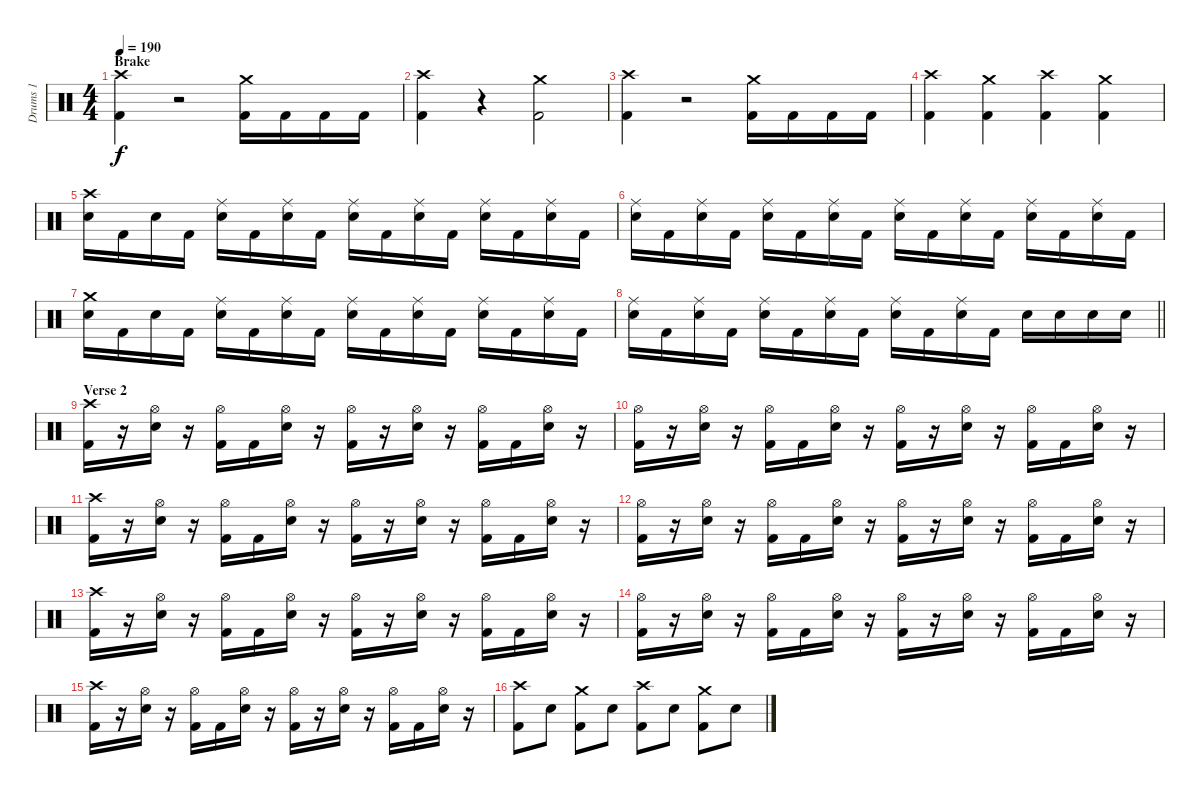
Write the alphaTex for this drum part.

\track ("Drums 1" "Drums 1") {instrument percussion}
\staff {score}
\articulation defaults
\ts (4 4)
\section ("" "Brake")
\tempo 190
\clef neutral
\ks c
("Crash high (hit)" "Kick (hit) 2").4{dy f} r.2 ("Crash medium (hit)" "Kick (hit) 2").16 "Kick (hit) 2".16 "Kick (hit) 2".16 "Kick (hit) 2".16 |
("Crash high (hit)" "Kick (hit) 2").4 r.4 ("Crash medium (hit)" "Kick (hit) 2").2 |
("Crash high (hit)" "Kick (hit) 2").4 r.2 ("Crash medium (hit)" "Kick (hit) 2").16 "Kick (hit) 2".16 "Kick (hit) 2".16 "Kick (hit) 2".16 |
("Crash high (hit)" "Kick (hit) 2").4 ("Crash medium (hit)" "Kick (hit) 2").4 ("Crash high (hit)" "Kick (hit) 2").4 ("Crash medium (hit)" "Kick (hit) 2").4 |
("Crash high (hit)" "Snare (hit) 2").16 "Kick (hit) 2".16 "Snare (hit) 2".16 "Kick (hit) 2".16 ("Ride (middle)" "Snare (hit) 2").16 "Kick (hit) 2".16 ("Ride (middle)" "Snare (hit) 2").16 "Kick (hit) 2".16 ("Ride (middle)" "Snare (hit) 2").16 "Kick (hit) 2".16 ("Ride (middle)" "Snare (hit) 2").16 "Kick (hit) 2".16 ("Ride (middle)" "Snare (hit) 2").16 "Kick (hit) 2".16 ("Ride (middle)" "Snare (hit) 2").16 "Kick (hit) 2".16 |
("Ride (middle)" "Snare (hit) 2").16 "Kick (hit) 2".16 ("Ride (middle)" "Snare (hit) 2").16 "Kick (hit) 2".16 ("Ride (middle)" "Snare (hit) 2").16 "Kick (hit) 2".16 ("Ride (middle)" "Snare (hit) 2").16 "Kick (hit) 2".16 ("Ride (middle)" "Snare (hit) 2").16 "Kick (hit) 2".16 ("Ride (middle)" "Snare (hit) 2").16 "Kick (hit) 2".16 ("Ride (middle)" "Snare (hit) 2").16 "Kick (hit) 2".16 ("Ride (middle)" "Snare (hit) 2").16 "Kick (hit) 2".16 |
("Crash medium (hit)" "Snare (hit) 2").16 "Kick (hit) 2".16 "Snare (hit) 2".16 "Kick (hit) 2".16 ("Ride (middle)" "Snare (hit) 2").16 "Kick (hit) 2".16 ("Ride (middle)" "Snare (hit) 2").16 "Kick (hit) 2".16 ("Ride (middle)" "Snare (hit) 2").16 "Kick (hit) 2".16 ("Ride (middle)" "Snare (hit) 2").16 "Kick (hit) 2".16 ("Ride (middle)" "Snare (hit) 2").16 "Kick (hit) 2".16 ("Ride (middle)" "Snare (hit) 2").16 "Kick (hit) 2".16 |
\barLineRight lightlight
("Ride (middle)" "Snare (hit) 2").16 "Kick (hit) 2".16 ("Ride (middle)" "Snare (hit) 2").16 "Kick (hit) 2".16 ("Ride (middle)" "Snare (hit) 2").16 "Kick (hit) 2".16 ("Ride (middle)" "Snare (hit) 2").16 "Kick (hit) 2".16 ("Ride (middle)" "Snare (hit) 2").16 "Kick (hit) 2".16 ("Ride (middle)" "Snare (hit) 2").16 "Kick (hit) 2".16 "Snare (hit) 2".16 "Snare (hit) 2".16 "Snare (hit) 2".16 "Snare (hit) 2".16 |
\section ("" "Verse 2")
("Crash high (hit)" "Kick (hit) 2").16 r.16 ("Hi-Hat (open)" "Snare (hit) 2").16 r.16 ("Hi-Hat (open)" "Kick (hit) 2").16 "Kick (hit) 2".16 ("Hi-Hat (open)" "Snare (hit) 2").16 r.16 ("Hi-Hat (open)" "Kick (hit) 2").16 r.16 ("Hi-Hat (open)" "Snare (hit) 2").16 r.16 ("Hi-Hat (open)" "Kick (hit) 2").16 "Kick (hit) 2".16 ("Hi-Hat (open)" "Snare (hit) 2").16 r.16 |
("Hi-Hat (open)" "Kick (hit) 2").16 r.16 ("Hi-Hat (open)" "Snare (hit) 2").16 r.16 ("Hi-Hat (open)" "Kick (hit) 2").16 "Kick (hit) 2".16 ("Hi-Hat (open)" "Snare (hit) 2").16 r.16 ("Hi-Hat (open)" "Kick (hit) 2").16 r.16 ("Hi-Hat (open)" "Snare (hit) 2").16 r.16 ("Hi-Hat (open)" "Kick (hit) 2").16 "Kick (hit) 2".16 ("Hi-Hat (open)" "Snare (hit) 2").16 r.16 |
("Crash high (hit)" "Kick (hit) 2").16 r.16 ("Hi-Hat (open)" "Snare (hit) 2").16 r.16 ("Hi-Hat (open)" "Kick (hit) 2").16 "Kick (hit) 2".16 ("Hi-Hat (open)" "Snare (hit) 2").16 r.16 ("Hi-Hat (open)" "Kick (hit) 2").16 r.16 ("Hi-Hat (open)" "Snare (hit) 2").16 r.16 ("Hi-Hat (open)" "Kick (hit) 2").16 "Kick (hit) 2".16 ("Hi-Hat (open)" "Snare (hit) 2").16 r.16 |
("Hi-Hat (open)" "Kick (hit) 2").16 r.16 ("Hi-Hat (open)" "Snare (hit) 2").16 r.16 ("Hi-Hat (open)" "Kick (hit) 2").16 "Kick (hit) 2".16 ("Hi-Hat (open)" "Snare (hit) 2").16 r.16 ("Hi-Hat (open)" "Kick (hit) 2").16 r.16 ("Hi-Hat (open)" "Snare (hit) 2").16 r.16 ("Hi-Hat (open)" "Kick (hit) 2").16 "Kick (hit) 2".16 ("Hi-Hat (open)" "Snare (hit) 2").16 r.16 |
("Crash high (hit)" "Kick (hit) 2").16 r.16 ("Hi-Hat (open)" "Snare (hit) 2").16 r.16 ("Hi-Hat (open)" "Kick (hit) 2").16 "Kick (hit) 2".16 ("Hi-Hat (open)" "Snare (hit) 2").16 r.16 ("Hi-Hat (open)" "Kick (hit) 2").16 r.16 ("Hi-Hat (open)" "Snare (hit) 2").16 r.16 ("Hi-Hat (open)" "Kick (hit) 2").16 "Kick (hit) 2".16 ("Hi-Hat (open)" "Snare (hit) 2").16 r.16 |
("Hi-Hat (open)" "Kick (hit) 2").16 r.16 ("Hi-Hat (open)" "Snare (hit) 2").16 r.16 ("Hi-Hat (open)" "Kick (hit) 2").16 "Kick (hit) 2".16 ("Hi-Hat (open)" "Snare (hit) 2").16 r.16 ("Hi-Hat (open)" "Kick (hit) 2").16 r.16 ("Hi-Hat (open)" "Snare (hit) 2").16 r.16 ("Hi-Hat (open)" "Kick (hit) 2").16 "Kick (hit) 2".16 ("Hi-Hat (open)" "Snare (hit) 2").16 r.16 |
("Crash high (hit)" "Kick (hit) 2").16 r.16 ("Hi-Hat (open)" "Snare (hit) 2").16 r.16 ("Hi-Hat (open)" "Kick (hit) 2").16 "Kick (hit) 2".16 ("Hi-Hat (open)" "Snare (hit) 2").16 r.16 ("Hi-Hat (open)" "Kick (hit) 2").16 r.16 ("Hi-Hat (open)" "Snare (hit) 2").16 r.16 ("Hi-Hat (open)" "Kick (hit) 2").16 "Kick (hit) 2".16 ("Hi-Hat (open)" "Snare (hit) 2").16 r.16 |
("Crash high (hit)" "Kick (hit) 2").8 "Snare (hit) 2".8 ("Crash medium (hit)" "Kick (hit) 2").8 "Snare (hit) 2".8 ("Crash high (hit)" "Kick (hit) 2").8 "Snare (hit) 2".8 ("Crash medium (hit)" "Kick (hit) 2").8 "Snare (hit) 2".8
